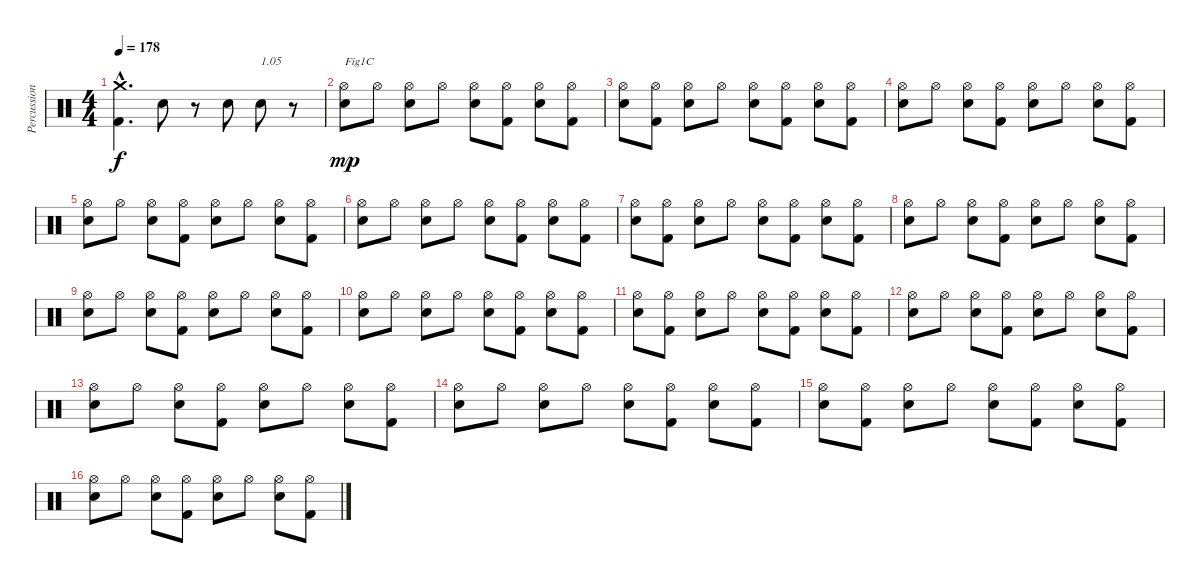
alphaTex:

\track ("Percussions" "Percussion") {instrument percussion}
\staff {score}
\articulation defaults
\ts (4 4)
\tempo 178
\clef neutral
\ks c
("Kick (hit) 2"{hac} "Crash medium (hit)"{hac}).4{d dy f} "Electric Snare (hit)".8 r.8 "Electric Snare (hit)".8 "Electric Snare (hit)".8{txt "1.05"} r.8 |
("Electric Snare (hit)" "Hi-Hat (open)").8{txt "Fig1C" dy mp} "Hi-Hat (open)".8 ("Electric Snare (hit)" "Hi-Hat (open)").8 "Hi-Hat (open)".8 ("Electric Snare (hit)" "Hi-Hat (open)").8 ("Kick (hit) 2" "Hi-Hat (open)").8 ("Electric Snare (hit)" "Hi-Hat (open)").8 ("Kick (hit) 2" "Hi-Hat (open)").8 |
("Electric Snare (hit)" "Hi-Hat (open)").8 ("Kick (hit) 2" "Hi-Hat (open)").8 ("Electric Snare (hit)" "Hi-Hat (open)").8 "Hi-Hat (open)".8 ("Electric Snare (hit)" "Hi-Hat (open)").8 ("Kick (hit) 2" "Hi-Hat (open)").8 ("Electric Snare (hit)" "Hi-Hat (open)").8 ("Kick (hit) 2" "Hi-Hat (open)").8 |
("Electric Snare (hit)" "Hi-Hat (open)").8 "Hi-Hat (open)".8 ("Electric Snare (hit)" "Hi-Hat (open)").8 ("Kick (hit) 2" "Hi-Hat (open)").8 ("Electric Snare (hit)" "Hi-Hat (open)").8 "Hi-Hat (open)".8 ("Electric Snare (hit)" "Hi-Hat (open)").8 ("Kick (hit) 2" "Hi-Hat (open)").8 |
("Electric Snare (hit)" "Hi-Hat (open)").8 "Hi-Hat (open)".8 ("Electric Snare (hit)" "Hi-Hat (open)").8 ("Kick (hit) 2" "Hi-Hat (open)").8 ("Electric Snare (hit)" "Hi-Hat (open)").8 "Hi-Hat (open)".8 ("Electric Snare (hit)" "Hi-Hat (open)").8 ("Kick (hit) 2" "Hi-Hat (open)").8 |
("Electric Snare (hit)" "Hi-Hat (open)").8 "Hi-Hat (open)".8 ("Electric Snare (hit)" "Hi-Hat (open)").8 "Hi-Hat (open)".8 ("Electric Snare (hit)" "Hi-Hat (open)").8 ("Kick (hit) 2" "Hi-Hat (open)").8 ("Electric Snare (hit)" "Hi-Hat (open)").8 ("Kick (hit) 2" "Hi-Hat (open)").8 |
("Electric Snare (hit)" "Hi-Hat (open)").8 ("Kick (hit) 2" "Hi-Hat (open)").8 ("Electric Snare (hit)" "Hi-Hat (open)").8 "Hi-Hat (open)".8 ("Electric Snare (hit)" "Hi-Hat (open)").8 ("Kick (hit) 2" "Hi-Hat (open)").8 ("Electric Snare (hit)" "Hi-Hat (open)").8 ("Kick (hit) 2" "Hi-Hat (open)").8 |
("Electric Snare (hit)" "Hi-Hat (open)").8 "Hi-Hat (open)".8 ("Electric Snare (hit)" "Hi-Hat (open)").8 ("Kick (hit) 2" "Hi-Hat (open)").8 ("Electric Snare (hit)" "Hi-Hat (open)").8 "Hi-Hat (open)".8 ("Electric Snare (hit)" "Hi-Hat (open)").8 ("Kick (hit) 2" "Hi-Hat (open)").8 |
("Electric Snare (hit)" "Hi-Hat (open)").8 "Hi-Hat (open)".8 ("Electric Snare (hit)" "Hi-Hat (open)").8 ("Kick (hit) 2" "Hi-Hat (open)").8 ("Electric Snare (hit)" "Hi-Hat (open)").8 "Hi-Hat (open)".8 ("Electric Snare (hit)" "Hi-Hat (open)").8 ("Kick (hit) 2" "Hi-Hat (open)").8 |
("Electric Snare (hit)" "Hi-Hat (open)").8 "Hi-Hat (open)".8 ("Electric Snare (hit)" "Hi-Hat (open)").8 "Hi-Hat (open)".8 ("Electric Snare (hit)" "Hi-Hat (open)").8 ("Kick (hit) 2" "Hi-Hat (open)").8 ("Electric Snare (hit)" "Hi-Hat (open)").8 ("Kick (hit) 2" "Hi-Hat (open)").8 |
("Electric Snare (hit)" "Hi-Hat (open)").8 ("Kick (hit) 2" "Hi-Hat (open)").8 ("Electric Snare (hit)" "Hi-Hat (open)").8 "Hi-Hat (open)".8 ("Electric Snare (hit)" "Hi-Hat (open)").8 ("Kick (hit) 2" "Hi-Hat (open)").8 ("Electric Snare (hit)" "Hi-Hat (open)").8 ("Kick (hit) 2" "Hi-Hat (open)").8 |
("Electric Snare (hit)" "Hi-Hat (open)").8 "Hi-Hat (open)".8 ("Electric Snare (hit)" "Hi-Hat (open)").8 ("Kick (hit) 2" "Hi-Hat (open)").8 ("Electric Snare (hit)" "Hi-Hat (open)").8 "Hi-Hat (open)".8 ("Electric Snare (hit)" "Hi-Hat (open)").8 ("Kick (hit) 2" "Hi-Hat (open)").8 |
("Electric Snare (hit)" "Hi-Hat (open)").8 "Hi-Hat (open)".8 ("Electric Snare (hit)" "Hi-Hat (open)").8 ("Kick (hit) 2" "Hi-Hat (open)").8 ("Electric Snare (hit)" "Hi-Hat (open)").8 "Hi-Hat (open)".8 ("Electric Snare (hit)" "Hi-Hat (open)").8 ("Kick (hit) 2" "Hi-Hat (open)").8 |
("Electric Snare (hit)" "Hi-Hat (open)").8 "Hi-Hat (open)".8 ("Electric Snare (hit)" "Hi-Hat (open)").8 "Hi-Hat (open)".8 ("Electric Snare (hit)" "Hi-Hat (open)").8 ("Kick (hit) 2" "Hi-Hat (open)").8 ("Electric Snare (hit)" "Hi-Hat (open)").8 ("Kick (hit) 2" "Hi-Hat (open)").8 |
("Electric Snare (hit)" "Hi-Hat (open)").8 ("Kick (hit) 2" "Hi-Hat (open)").8 ("Electric Snare (hit)" "Hi-Hat (open)").8 "Hi-Hat (open)".8 ("Electric Snare (hit)" "Hi-Hat (open)").8 ("Kick (hit) 2" "Hi-Hat (open)").8 ("Electric Snare (hit)" "Hi-Hat (open)").8 ("Kick (hit) 2" "Hi-Hat (open)").8 |
("Electric Snare (hit)" "Hi-Hat (open)").8 "Hi-Hat (open)".8 ("Electric Snare (hit)" "Hi-Hat (open)").8 ("Kick (hit) 2" "Hi-Hat (open)").8 ("Electric Snare (hit)" "Hi-Hat (open)").8 "Hi-Hat (open)".8 ("Electric Snare (hit)" "Hi-Hat (open)").8 ("Kick (hit) 2" "Hi-Hat (open)").8
